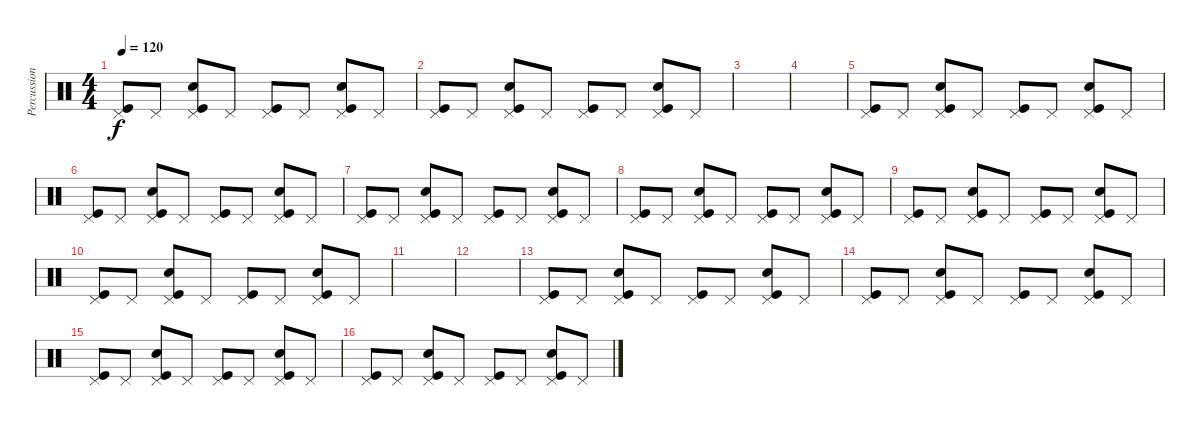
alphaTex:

\track ("Percussion" "Percussion") {instrument percussion}
\staff {score}
\articulation defaults
\ts (4 4)
\tempo 120
\clef neutral
\ks c
("Pedal Hi-Hat (hit)" "Kick (hit)").8{dy f} "Pedal Hi-Hat (hit)".8 ("Pedal Hi-Hat (hit)" "Electric Snare (hit)" "Kick (hit)").8 "Pedal Hi-Hat (hit)".8 ("Pedal Hi-Hat (hit)" "Kick (hit)").8 "Pedal Hi-Hat (hit)".8 ("Pedal Hi-Hat (hit)" "Electric Snare (hit)" "Kick (hit)").8 "Pedal Hi-Hat (hit)".8 |
("Pedal Hi-Hat (hit)" "Kick (hit)").8 "Pedal Hi-Hat (hit)".8 ("Pedal Hi-Hat (hit)" "Electric Snare (hit)" "Kick (hit)").8 "Pedal Hi-Hat (hit)".8 ("Pedal Hi-Hat (hit)" "Kick (hit)").8 "Pedal Hi-Hat (hit)".8 ("Pedal Hi-Hat (hit)" "Electric Snare (hit)" "Kick (hit)").8 "Pedal Hi-Hat (hit)".8 |
|
|
("Pedal Hi-Hat (hit)" "Kick (hit)").8 "Pedal Hi-Hat (hit)".8 ("Pedal Hi-Hat (hit)" "Electric Snare (hit)" "Kick (hit)").8 "Pedal Hi-Hat (hit)".8 ("Pedal Hi-Hat (hit)" "Kick (hit)").8 "Pedal Hi-Hat (hit)".8 ("Pedal Hi-Hat (hit)" "Electric Snare (hit)" "Kick (hit)").8 "Pedal Hi-Hat (hit)".8 |
("Pedal Hi-Hat (hit)" "Kick (hit)").8 "Pedal Hi-Hat (hit)".8 ("Pedal Hi-Hat (hit)" "Electric Snare (hit)" "Kick (hit)").8 "Pedal Hi-Hat (hit)".8 ("Pedal Hi-Hat (hit)" "Kick (hit)").8 "Pedal Hi-Hat (hit)".8 ("Pedal Hi-Hat (hit)" "Electric Snare (hit)" "Kick (hit)").8 "Pedal Hi-Hat (hit)".8 |
("Pedal Hi-Hat (hit)" "Kick (hit)").8 "Pedal Hi-Hat (hit)".8 ("Pedal Hi-Hat (hit)" "Electric Snare (hit)" "Kick (hit)").8 "Pedal Hi-Hat (hit)".8 ("Pedal Hi-Hat (hit)" "Kick (hit)").8 "Pedal Hi-Hat (hit)".8 ("Pedal Hi-Hat (hit)" "Electric Snare (hit)" "Kick (hit)").8 "Pedal Hi-Hat (hit)".8 |
("Pedal Hi-Hat (hit)" "Kick (hit)").8 "Pedal Hi-Hat (hit)".8 ("Pedal Hi-Hat (hit)" "Electric Snare (hit)" "Kick (hit)").8 "Pedal Hi-Hat (hit)".8 ("Pedal Hi-Hat (hit)" "Kick (hit)").8 "Pedal Hi-Hat (hit)".8 ("Pedal Hi-Hat (hit)" "Electric Snare (hit)" "Kick (hit)").8 "Pedal Hi-Hat (hit)".8 |
("Pedal Hi-Hat (hit)" "Kick (hit)").8 "Pedal Hi-Hat (hit)".8 ("Pedal Hi-Hat (hit)" "Electric Snare (hit)" "Kick (hit)").8 "Pedal Hi-Hat (hit)".8 ("Pedal Hi-Hat (hit)" "Kick (hit)").8 "Pedal Hi-Hat (hit)".8 ("Pedal Hi-Hat (hit)" "Electric Snare (hit)" "Kick (hit)").8 "Pedal Hi-Hat (hit)".8 |
("Pedal Hi-Hat (hit)" "Kick (hit)").8 "Pedal Hi-Hat (hit)".8 ("Pedal Hi-Hat (hit)" "Electric Snare (hit)" "Kick (hit)").8 "Pedal Hi-Hat (hit)".8 ("Pedal Hi-Hat (hit)" "Kick (hit)").8 "Pedal Hi-Hat (hit)".8 ("Pedal Hi-Hat (hit)" "Electric Snare (hit)" "Kick (hit)").8 "Pedal Hi-Hat (hit)".8 |
|
|
("Pedal Hi-Hat (hit)" "Kick (hit)").8 "Pedal Hi-Hat (hit)".8 ("Pedal Hi-Hat (hit)" "Electric Snare (hit)" "Kick (hit)").8 "Pedal Hi-Hat (hit)".8 ("Pedal Hi-Hat (hit)" "Kick (hit)").8 "Pedal Hi-Hat (hit)".8 ("Pedal Hi-Hat (hit)" "Electric Snare (hit)" "Kick (hit)").8 "Pedal Hi-Hat (hit)".8 |
("Pedal Hi-Hat (hit)" "Kick (hit)").8 "Pedal Hi-Hat (hit)".8 ("Pedal Hi-Hat (hit)" "Electric Snare (hit)" "Kick (hit)").8 "Pedal Hi-Hat (hit)".8 ("Pedal Hi-Hat (hit)" "Kick (hit)").8 "Pedal Hi-Hat (hit)".8 ("Pedal Hi-Hat (hit)" "Electric Snare (hit)" "Kick (hit)").8 "Pedal Hi-Hat (hit)".8 |
("Pedal Hi-Hat (hit)" "Kick (hit)").8 "Pedal Hi-Hat (hit)".8 ("Pedal Hi-Hat (hit)" "Electric Snare (hit)" "Kick (hit)").8 "Pedal Hi-Hat (hit)".8 ("Pedal Hi-Hat (hit)" "Kick (hit)").8 "Pedal Hi-Hat (hit)".8 ("Pedal Hi-Hat (hit)" "Electric Snare (hit)" "Kick (hit)").8 "Pedal Hi-Hat (hit)".8 |
("Pedal Hi-Hat (hit)" "Kick (hit)").8 "Pedal Hi-Hat (hit)".8 ("Pedal Hi-Hat (hit)" "Electric Snare (hit)" "Kick (hit)").8 "Pedal Hi-Hat (hit)".8 ("Pedal Hi-Hat (hit)" "Kick (hit)").8 "Pedal Hi-Hat (hit)".8 ("Pedal Hi-Hat (hit)" "Electric Snare (hit)" "Kick (hit)").8 "Pedal Hi-Hat (hit)".8
